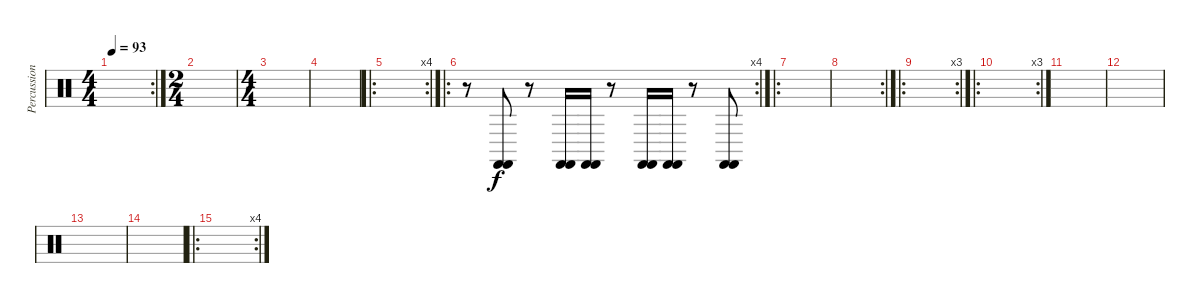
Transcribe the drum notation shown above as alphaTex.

\track ("Percussion" "Percussion") {instrument percussion}
\staff {score}
\articulation defaults
\rc 2
\ts (4 4)
\tempo 93
\clef neutral
\ks c
|
\ts (2 4)
|
\ts (4 4)
|
|
\ro
\rc 4
|
\ro
\rc 4
r.8 ("Castanets (hit)" "Castanets (hit)").8 r.8 ("Castanets (hit)" "Castanets (hit)").16 ("Castanets (hit)" "Castanets (hit)").16 r.8 ("Castanets (hit)" "Castanets (hit)").16 ("Castanets (hit)" "Castanets (hit)").16 r.8 ("Castanets (hit)" "Castanets (hit)").8 |
\ro
|
\rc 2
|
\ro
\rc 3
|
\ro
\rc 3
|
|
|
|
|
\ro
\rc 4
